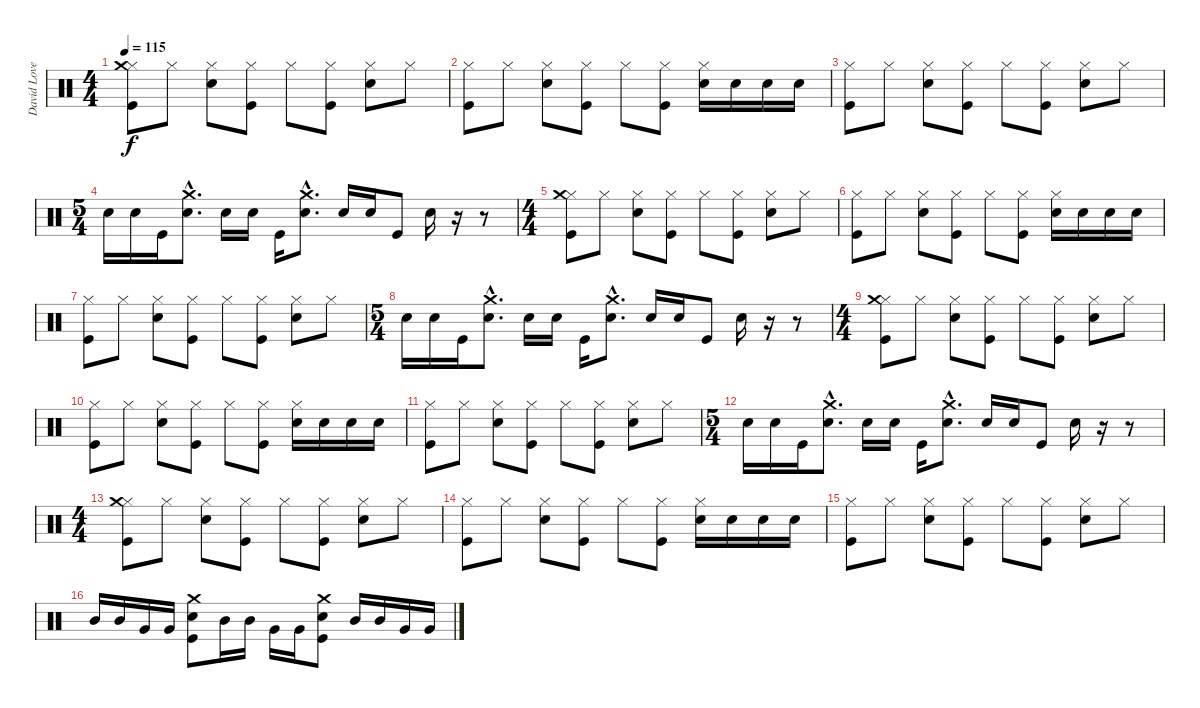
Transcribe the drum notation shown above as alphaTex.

\track ("David Lovering" "David Love") {instrument percussion}
\staff {score}
\articulation defaults
\ts (4 4)
\tempo 115
\clef neutral
\ks c
("Hi-Hat (closed)" "Crash medium (hit)" "Kick (hit)").8{dy f} "Hi-Hat (closed)".8 ("Hi-Hat (closed)" "Snare (hit) 2").8 ("Hi-Hat (closed)" "Kick (hit)").8 "Hi-Hat (closed)".8 ("Hi-Hat (closed)" "Kick (hit)").8 ("Hi-Hat (closed)" "Snare (hit) 2").8 "Hi-Hat (closed)".8 |
("Hi-Hat (closed)" "Kick (hit)").8 "Hi-Hat (closed)".8 ("Hi-Hat (closed)" "Snare (hit) 2").8 ("Hi-Hat (closed)" "Kick (hit)").8 "Hi-Hat (closed)".8 ("Hi-Hat (closed)" "Kick (hit)").8 ("Hi-Hat (closed)" "Snare (hit) 2").16 "Snare (hit) 2".16 "Snare (hit) 2".16 "Snare (hit) 2".16 |
("Hi-Hat (closed)" "Kick (hit)").8 "Hi-Hat (closed)".8 ("Hi-Hat (closed)" "Snare (hit) 2").8 ("Hi-Hat (closed)" "Kick (hit)").8 "Hi-Hat (closed)".8 ("Hi-Hat (closed)" "Kick (hit)").8 ("Hi-Hat (closed)" "Snare (hit) 2").8 "Hi-Hat (closed)".8 |
\ts (5 4)
"Snare (hit) 2".16 "Snare (hit) 2".16 "Kick (hit)".16 ("Crash medium (hit)"{hac} "Snare (hit) 2"{hac}).8{d} "Snare (hit) 2".16 "Snare (hit) 2".16 "Kick (hit)".16 ("Crash medium (hit)"{hac} "Snare (hit) 2"{hac}).8{d} "Snare (hit) 2".16 "Snare (hit) 2".16 "Kick (hit)".8 "Snare (hit) 2".16 r.16 r.8 |
\ts (4 4)
("Hi-Hat (closed)" "Crash medium (hit)" "Kick (hit)").8 "Hi-Hat (closed)".8 ("Hi-Hat (closed)" "Snare (hit) 2").8 ("Hi-Hat (closed)" "Kick (hit)").8 "Hi-Hat (closed)".8 ("Hi-Hat (closed)" "Kick (hit)").8 ("Hi-Hat (closed)" "Snare (hit) 2").8 "Hi-Hat (closed)".8 |
("Hi-Hat (closed)" "Kick (hit)").8 "Hi-Hat (closed)".8 ("Hi-Hat (closed)" "Snare (hit) 2").8 ("Hi-Hat (closed)" "Kick (hit)").8 "Hi-Hat (closed)".8 ("Hi-Hat (closed)" "Kick (hit)").8 ("Hi-Hat (closed)" "Snare (hit) 2").16 "Snare (hit) 2".16 "Snare (hit) 2".16 "Snare (hit) 2".16 |
("Hi-Hat (closed)" "Kick (hit)").8 "Hi-Hat (closed)".8 ("Hi-Hat (closed)" "Snare (hit) 2").8 ("Hi-Hat (closed)" "Kick (hit)").8 "Hi-Hat (closed)".8 ("Hi-Hat (closed)" "Kick (hit)").8 ("Hi-Hat (closed)" "Snare (hit) 2").8 "Hi-Hat (closed)".8 |
\ts (5 4)
"Snare (hit) 2".16 "Snare (hit) 2".16 "Kick (hit)".16 ("Crash medium (hit)"{hac} "Snare (hit) 2"{hac}).8{d} "Snare (hit) 2".16 "Snare (hit) 2".16 "Kick (hit)".16 ("Crash medium (hit)"{hac} "Snare (hit) 2"{hac}).8{d} "Snare (hit) 2".16 "Snare (hit) 2".16 "Kick (hit)".8 "Snare (hit) 2".16 r.16 r.8 |
\ts (4 4)
("Hi-Hat (closed)" "Crash medium (hit)" "Kick (hit)").8 "Hi-Hat (closed)".8 ("Hi-Hat (closed)" "Snare (hit) 2").8 ("Hi-Hat (closed)" "Kick (hit)").8 "Hi-Hat (closed)".8 ("Hi-Hat (closed)" "Kick (hit)").8 ("Hi-Hat (closed)" "Snare (hit) 2").8 "Hi-Hat (closed)".8 |
("Hi-Hat (closed)" "Kick (hit)").8 "Hi-Hat (closed)".8 ("Hi-Hat (closed)" "Snare (hit) 2").8 ("Hi-Hat (closed)" "Kick (hit)").8 "Hi-Hat (closed)".8 ("Hi-Hat (closed)" "Kick (hit)").8 ("Hi-Hat (closed)" "Snare (hit) 2").16 "Snare (hit) 2".16 "Snare (hit) 2".16 "Snare (hit) 2".16 |
("Hi-Hat (closed)" "Kick (hit)").8 "Hi-Hat (closed)".8 ("Hi-Hat (closed)" "Snare (hit) 2").8 ("Hi-Hat (closed)" "Kick (hit)").8 "Hi-Hat (closed)".8 ("Hi-Hat (closed)" "Kick (hit)").8 ("Hi-Hat (closed)" "Snare (hit) 2").8 "Hi-Hat (closed)".8 |
\ts (5 4)
"Snare (hit) 2".16 "Snare (hit) 2".16 "Kick (hit)".16 ("Crash medium (hit)"{hac} "Snare (hit) 2"{hac}).8{d} "Snare (hit) 2".16 "Snare (hit) 2".16 "Kick (hit)".16 ("Crash medium (hit)"{hac} "Snare (hit) 2"{hac}).8{d} "Snare (hit) 2".16 "Snare (hit) 2".16 "Kick (hit)".8 "Snare (hit) 2".16 r.16 r.8 |
\ts (4 4)
("Hi-Hat (closed)" "Crash medium (hit)" "Kick (hit)").8 "Hi-Hat (closed)".8 ("Hi-Hat (closed)" "Snare (hit) 2").8 ("Hi-Hat (closed)" "Kick (hit)").8 "Hi-Hat (closed)".8 ("Hi-Hat (closed)" "Kick (hit)").8 ("Hi-Hat (closed)" "Snare (hit) 2").8 "Hi-Hat (closed)".8 |
("Hi-Hat (closed)" "Kick (hit)").8 "Hi-Hat (closed)".8 ("Hi-Hat (closed)" "Snare (hit) 2").8 ("Hi-Hat (closed)" "Kick (hit)").8 "Hi-Hat (closed)".8 ("Hi-Hat (closed)" "Kick (hit)").8 ("Hi-Hat (closed)" "Snare (hit) 2").16 "Snare (hit) 2".16 "Snare (hit) 2".16 "Snare (hit) 2".16 |
("Hi-Hat (closed)" "Kick (hit)").8 "Hi-Hat (closed)".8 ("Hi-Hat (closed)" "Snare (hit) 2").8 ("Hi-Hat (closed)" "Kick (hit)").8 "Hi-Hat (closed)".8 ("Hi-Hat (closed)" "Kick (hit)").8 ("Hi-Hat (closed)" "Snare (hit) 2").8 "Hi-Hat (closed)".8 |
"Mid Tom (hit)".16 "Mid Tom (hit)".16 "Very Low Tom (hit)".16 "Very Low Tom (hit)".16 ("Crash medium (hit)" "Snare (hit) 2" "Kick (hit)").8 "Mid Tom (hit)".16 "Mid Tom (hit)".16 "Very Low Tom (hit)".16 "Very Low Tom (hit)".16 ("Crash medium (hit)" "Snare (hit) 2" "Kick (hit)").8 "Mid Tom (hit)".16 "Mid Tom (hit)".16 "Very Low Tom (hit)".16 "Very Low Tom (hit)".16
